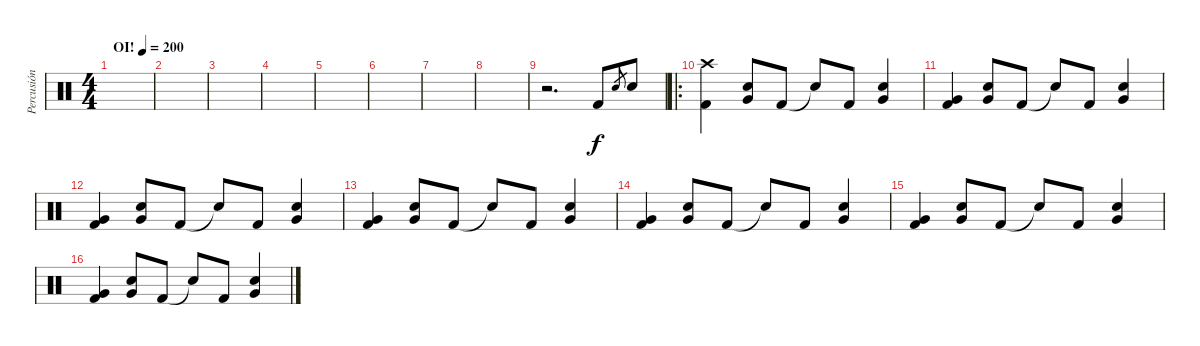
\track ("Percusión" "Percusión") {instrument percussion}
\staff {score}
\articulation defaults
\ts (4 4)
\tempo (200 "OI!")
\clef neutral
\ks c
|
|
|
|
|
|
|
|
r.2{d} "Kick (hit) 2".8 "Snare (hit) 2".8{gr} "Snare (hit) 2".8 |
\ro
("Crash high (hit)" "Kick (hit) 2").4 ("Very Low Tom (hit)" "Snare (hit) 2").8 "Kick (hit) 2".8 "Snare (hit)"{t}.8 "Kick (hit) 2".8 ("Very Low Tom (hit)" "Snare (hit) 2").4 |
("Very Low Tom (hit)" "Kick (hit) 2").4 ("Very Low Tom (hit)" "Snare (hit) 2").8 "Kick (hit) 2".8 "Snare (hit)"{t}.8 "Kick (hit) 2".8 ("Very Low Tom (hit)" "Snare (hit) 2").4 |
("Very Low Tom (hit)" "Kick (hit) 2").4 ("Very Low Tom (hit)" "Snare (hit) 2").8 "Kick (hit) 2".8 "Snare (hit)"{t}.8 "Kick (hit) 2".8 ("Very Low Tom (hit)" "Snare (hit) 2").4 |
("Very Low Tom (hit)" "Kick (hit) 2").4 ("Very Low Tom (hit)" "Snare (hit) 2").8 "Kick (hit) 2".8 "Snare (hit)"{t}.8 "Kick (hit) 2".8 ("Very Low Tom (hit)" "Snare (hit) 2").4 |
("Very Low Tom (hit)" "Kick (hit) 2").4 ("Very Low Tom (hit)" "Snare (hit) 2").8 "Kick (hit) 2".8 "Snare (hit)"{t}.8 "Kick (hit) 2".8 ("Very Low Tom (hit)" "Snare (hit) 2").4 |
("Very Low Tom (hit)" "Kick (hit) 2").4 ("Very Low Tom (hit)" "Snare (hit) 2").8 "Kick (hit) 2".8 "Snare (hit)"{t}.8 "Kick (hit) 2".8 ("Very Low Tom (hit)" "Snare (hit) 2").4 |
("Very Low Tom (hit)" "Kick (hit) 2").4 ("Very Low Tom (hit)" "Snare (hit) 2").8 "Kick (hit) 2".8 "Snare (hit)"{t}.8 "Kick (hit) 2".8 ("Very Low Tom (hit)" "Snare (hit) 2").4
